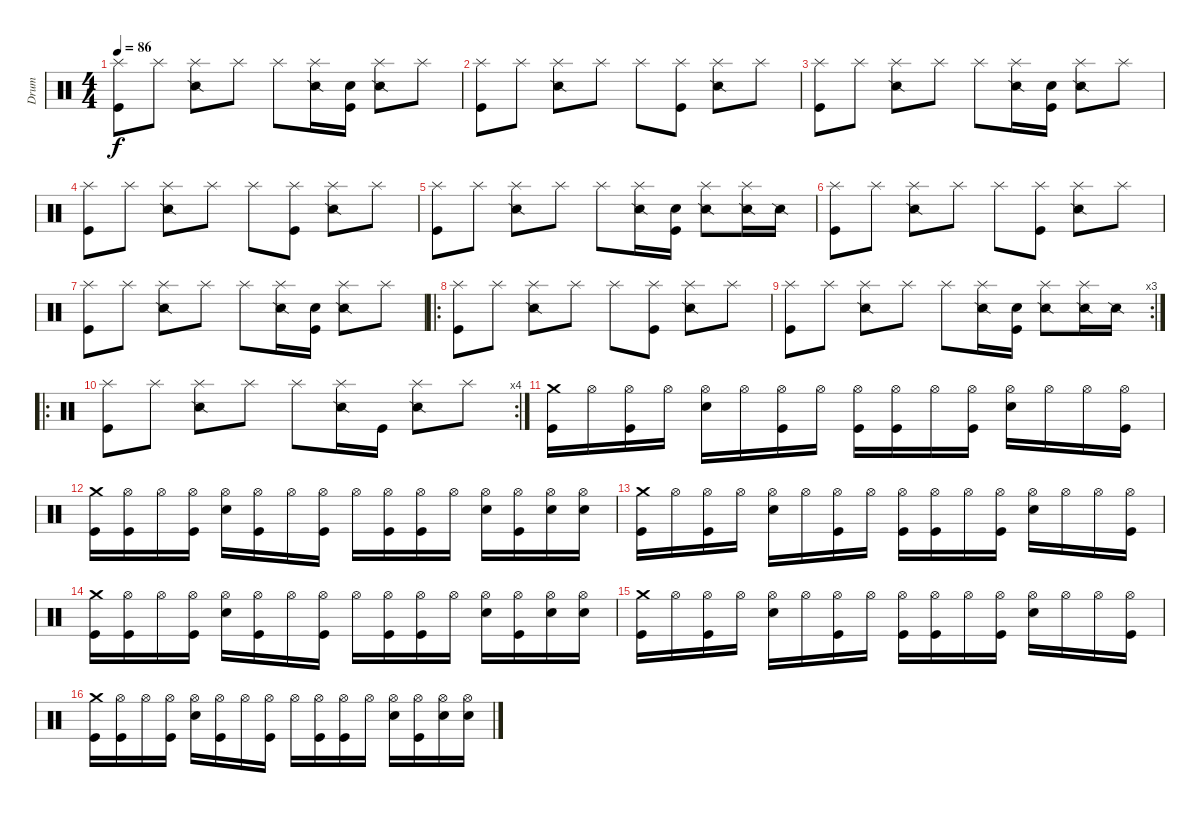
\track ("Drum" "Drum") {instrument percussion}
\staff {score}
\articulation defaults
\ts (4 4)
\tempo 86
\clef neutral
\ks c
("Splash (hit)" "Kick (hit)").8{dy f} "Splash (hit)".8 ("Splash (hit)" "Snare (side stick) 2").8 "Splash (hit)".8 "Splash (hit)".8 ("Splash (hit)" "Snare (side stick) 2").16 ("Snare (hit)" "Kick (hit)").16 ("Splash (hit)" "Snare (side stick) 2").8 "Splash (hit)".8 |
("Splash (hit)" "Kick (hit)").8 "Splash (hit)".8 ("Splash (hit)" "Snare (side stick) 2").8 "Splash (hit)".8 "Splash (hit)".8 ("Splash (hit)" "Kick (hit)").8 ("Splash (hit)" "Snare (side stick) 2").8 "Splash (hit)".8 |
("Splash (hit)" "Kick (hit)").8 "Splash (hit)".8 ("Splash (hit)" "Snare (side stick) 2").8 "Splash (hit)".8 "Splash (hit)".8 ("Splash (hit)" "Snare (side stick) 2").16 ("Snare (hit)" "Kick (hit)").16 ("Splash (hit)" "Snare (side stick) 2").8 "Splash (hit)".8 |
("Splash (hit)" "Kick (hit)").8 "Splash (hit)".8 ("Splash (hit)" "Snare (side stick) 2").8 "Splash (hit)".8 "Splash (hit)".8 ("Splash (hit)" "Kick (hit)").8 ("Splash (hit)" "Snare (side stick) 2").8 "Splash (hit)".8 |
("Splash (hit)" "Kick (hit)").8 "Splash (hit)".8 ("Splash (hit)" "Snare (side stick) 2").8 "Splash (hit)".8 "Splash (hit)".8 ("Splash (hit)" "Snare (side stick) 2").16 ("Snare (hit)" "Kick (hit)").16 ("Splash (hit)" "Snare (side stick) 2").8 ("Splash (hit)" "Snare (side stick) 2").16 "Snare (side stick) 2".16 |
("Splash (hit)" "Kick (hit)").8 "Splash (hit)".8 ("Splash (hit)" "Snare (side stick) 2").8 "Splash (hit)".8 "Splash (hit)".8 ("Splash (hit)" "Kick (hit)").8 ("Splash (hit)" "Snare (side stick) 2").8 "Splash (hit)".8 |
("Splash (hit)" "Kick (hit)").8 "Splash (hit)".8 ("Splash (hit)" "Snare (side stick) 2").8 "Splash (hit)".8 "Splash (hit)".8 ("Splash (hit)" "Snare (side stick) 2").16 ("Snare (hit)" "Kick (hit)").16 ("Splash (hit)" "Snare (side stick) 2").8 "Splash (hit)".8 |
\ro
("Splash (hit)" "Kick (hit)").8 "Splash (hit)".8 ("Splash (hit)" "Snare (side stick) 2").8 "Splash (hit)".8 "Splash (hit)".8 ("Splash (hit)" "Kick (hit)").8 ("Splash (hit)" "Snare (side stick) 2").8 "Splash (hit)".8 |
\rc 3
("Splash (hit)" "Kick (hit)").8 "Splash (hit)".8 ("Splash (hit)" "Snare (side stick) 2").8 "Splash (hit)".8 "Splash (hit)".8 ("Splash (hit)" "Snare (side stick) 2").16 ("Snare (hit)" "Kick (hit)").16 ("Splash (hit)" "Snare (side stick) 2").8 ("Splash (hit)" "Snare (side stick) 2").16 "Snare (side stick) 2".16 |
\ro
\rc 4
("Splash (hit)" "Kick (hit)").8 "Splash (hit)".8 ("Splash (hit)" "Snare (side stick) 2").8 "Splash (hit)".8 "Splash (hit)".8 ("Splash (hit)" "Snare (side stick) 2").16 "Kick (hit)".16 ("Splash (hit)" "Snare (side stick) 2").8 "Splash (hit)".8 |
("Crash medium (hit)" "Kick (hit)").16 "Hi-Hat (open)".16 ("Hi-Hat (open)" "Kick (hit)").16 "Hi-Hat (open)".16 ("Hi-Hat (open)" "Electric Snare (hit)").16 "Hi-Hat (open)".16 ("Hi-Hat (open)" "Kick (hit)").16 "Hi-Hat (open)".16 ("Hi-Hat (open)" "Kick (hit)").16 ("Hi-Hat (open)" "Kick (hit)").16 "Hi-Hat (open)".16 ("Hi-Hat (open)" "Kick (hit)").16 ("Hi-Hat (open)" "Electric Snare (hit)").16 "Hi-Hat (open)".16 "Hi-Hat (open)".16 ("Hi-Hat (open)" "Kick (hit)").16 |
("Crash medium (hit)" "Kick (hit)").16 ("Hi-Hat (open)" "Kick (hit)").16 "Hi-Hat (open)".16 ("Hi-Hat (open)" "Kick (hit)").16 ("Hi-Hat (open)" "Electric Snare (hit)").16 ("Hi-Hat (open)" "Kick (hit)").16 "Hi-Hat (open)".16 ("Hi-Hat (open)" "Kick (hit)").16 "Hi-Hat (open)".16 ("Hi-Hat (open)" "Kick (hit)").16 ("Hi-Hat (open)" "Kick (hit)").16 "Hi-Hat (open)".16 ("Hi-Hat (open)" "Electric Snare (hit)").16 ("Hi-Hat (open)" "Kick (hit)").16 ("Hi-Hat (open)" "Electric Snare (hit)").16 ("Hi-Hat (open)" "Electric Snare (hit)").16 |
("Crash medium (hit)" "Kick (hit)").16 "Hi-Hat (open)".16 ("Hi-Hat (open)" "Kick (hit)").16 "Hi-Hat (open)".16 ("Hi-Hat (open)" "Electric Snare (hit)").16 "Hi-Hat (open)".16 ("Hi-Hat (open)" "Kick (hit)").16 "Hi-Hat (open)".16 ("Hi-Hat (open)" "Kick (hit)").16 ("Hi-Hat (open)" "Kick (hit)").16 "Hi-Hat (open)".16 ("Hi-Hat (open)" "Kick (hit)").16 ("Hi-Hat (open)" "Electric Snare (hit)").16 "Hi-Hat (open)".16 "Hi-Hat (open)".16 ("Hi-Hat (open)" "Kick (hit)").16 |
("Crash medium (hit)" "Kick (hit)").16 ("Hi-Hat (open)" "Kick (hit)").16 "Hi-Hat (open)".16 ("Hi-Hat (open)" "Kick (hit)").16 ("Hi-Hat (open)" "Electric Snare (hit)").16 ("Hi-Hat (open)" "Kick (hit)").16 "Hi-Hat (open)".16 ("Hi-Hat (open)" "Kick (hit)").16 "Hi-Hat (open)".16 ("Hi-Hat (open)" "Kick (hit)").16 ("Hi-Hat (open)" "Kick (hit)").16 "Hi-Hat (open)".16 ("Hi-Hat (open)" "Electric Snare (hit)").16 ("Hi-Hat (open)" "Kick (hit)").16 ("Hi-Hat (open)" "Electric Snare (hit)").16 ("Hi-Hat (open)" "Electric Snare (hit)").16 |
("Crash medium (hit)" "Kick (hit)").16 "Hi-Hat (open)".16 ("Hi-Hat (open)" "Kick (hit)").16 "Hi-Hat (open)".16 ("Hi-Hat (open)" "Electric Snare (hit)").16 "Hi-Hat (open)".16 ("Hi-Hat (open)" "Kick (hit)").16 "Hi-Hat (open)".16 ("Hi-Hat (open)" "Kick (hit)").16 ("Hi-Hat (open)" "Kick (hit)").16 "Hi-Hat (open)".16 ("Hi-Hat (open)" "Kick (hit)").16 ("Hi-Hat (open)" "Electric Snare (hit)").16 "Hi-Hat (open)".16 "Hi-Hat (open)".16 ("Hi-Hat (open)" "Kick (hit)").16 |
("Crash medium (hit)" "Kick (hit)").16 ("Hi-Hat (open)" "Kick (hit)").16 "Hi-Hat (open)".16 ("Hi-Hat (open)" "Kick (hit)").16 ("Hi-Hat (open)" "Electric Snare (hit)").16 ("Hi-Hat (open)" "Kick (hit)").16 "Hi-Hat (open)".16 ("Hi-Hat (open)" "Kick (hit)").16 "Hi-Hat (open)".16 ("Hi-Hat (open)" "Kick (hit)").16 ("Hi-Hat (open)" "Kick (hit)").16 "Hi-Hat (open)".16 ("Hi-Hat (open)" "Electric Snare (hit)").16 ("Hi-Hat (open)" "Kick (hit)").16 ("Hi-Hat (open)" "Electric Snare (hit)").16 ("Hi-Hat (open)" "Electric Snare (hit)").16
